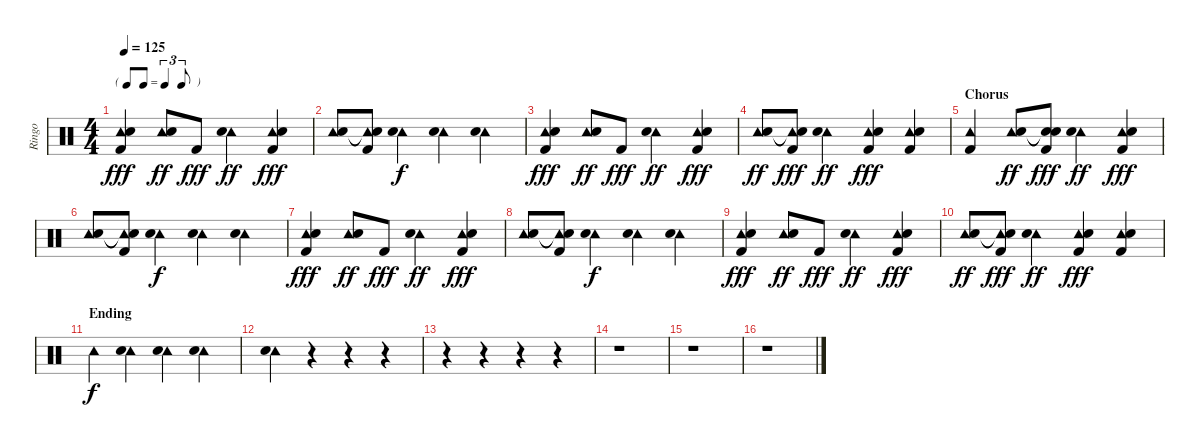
\track ("Ringo" "Ringo") {instrument percussion}
\staff {score}
\articulation defaults
\ts (4 4)
\tf triplet8th
\tempo 125
\clef neutral
\ks c
("Tambourine (hit)" "Electric Snare (hit)" "Kick (hit) 2").4{dy fff} ("Tambourine (hit)" "Electric Snare (hit)").8{dy ff} "Kick (hit) 2".8{dy fff} ("Tambourine (hit)" "Electric Snare (hit)").4{dy ff} ("Tambourine (hit)" "Electric Snare (hit)" "Kick (hit) 2").4{dy fff} |
("Tambourine (hit)" "Electric Snare (hit)").8 ("Tambourine (hit)"{t} "Electric Snare (hit)"{t} "Kick (hit) 2").8 ("Tambourine (hit)" "Electric Snare (hit)").4{dy f} ("Tambourine (hit)" "Electric Snare (hit)").4 ("Tambourine (hit)" "Electric Snare (hit)").4 |
("Tambourine (hit)" "Electric Snare (hit)" "Kick (hit) 2").4{dy fff} ("Tambourine (hit)" "Electric Snare (hit)").8{dy ff} "Kick (hit) 2".8{dy fff} ("Tambourine (hit)" "Electric Snare (hit)").4{dy ff} ("Tambourine (hit)" "Electric Snare (hit)" "Kick (hit) 2").4{dy fff} |
("Tambourine (hit)" "Electric Snare (hit)").8{dy ff} ("Tambourine (hit)"{t} "Electric Snare (hit)"{t} "Kick (hit) 2").8{dy fff} ("Tambourine (hit)" "Electric Snare (hit)").4{dy ff} ("Tambourine (hit)" "Electric Snare (hit)" "Kick (hit) 2").4{dy fff} ("Tambourine (hit)" "Electric Snare (hit)" "Kick (hit) 2").4 |
\section ("" "Chorus")
("Tambourine (hit)" "Kick (hit) 2").4 ("Tambourine (hit)" "Electric Snare (hit)").8{dy ff} ("Snare (hit)"{t} "Snare (hit)"{t} "Kick (hit) 2").8{dy fff} ("Tambourine (hit)" "Electric Snare (hit)").4{dy ff} ("Tambourine (hit)" "Electric Snare (hit)" "Kick (hit) 2").4{dy fff} |
("Tambourine (hit)" "Electric Snare (hit)").8 ("Tambourine (hit)"{t} "Electric Snare (hit)"{t} "Kick (hit) 2").8 ("Tambourine (hit)" "Electric Snare (hit)").4{dy f} ("Tambourine (hit)" "Electric Snare (hit)").4 ("Tambourine (hit)" "Electric Snare (hit)").4 |
("Tambourine (hit)" "Electric Snare (hit)" "Kick (hit) 2").4{dy fff} ("Tambourine (hit)" "Electric Snare (hit)").8{dy ff} "Kick (hit) 2".8{dy fff} ("Tambourine (hit)" "Electric Snare (hit)").4{dy ff} ("Tambourine (hit)" "Electric Snare (hit)" "Kick (hit) 2").4{dy fff} |
("Tambourine (hit)" "Electric Snare (hit)").8 ("Tambourine (hit)"{t} "Electric Snare (hit)"{t} "Kick (hit) 2").8 ("Tambourine (hit)" "Electric Snare (hit)").4{dy f} ("Tambourine (hit)" "Electric Snare (hit)").4 ("Tambourine (hit)" "Electric Snare (hit)").4 |
("Tambourine (hit)" "Electric Snare (hit)" "Kick (hit) 2").4{dy fff} ("Tambourine (hit)" "Electric Snare (hit)").8{dy ff} "Kick (hit) 2".8{dy fff} ("Tambourine (hit)" "Electric Snare (hit)").4{dy ff} ("Tambourine (hit)" "Electric Snare (hit)" "Kick (hit) 2").4{dy fff} |
("Tambourine (hit)" "Electric Snare (hit)").8{dy ff} ("Tambourine (hit)"{t} "Electric Snare (hit)"{t} "Kick (hit) 2").8{dy fff} ("Tambourine (hit)" "Electric Snare (hit)").4{dy ff} ("Tambourine (hit)" "Electric Snare (hit)" "Kick (hit) 2").4{dy fff} ("Tambourine (hit)" "Electric Snare (hit)" "Kick (hit) 2").4 |
\section ("" "Ending")
"Tambourine (hit)".4{dy f} ("Tambourine (hit)" "Electric Snare (hit)").4 ("Tambourine (hit)" "Electric Snare (hit)").4 ("Tambourine (hit)" "Electric Snare (hit)").4 |
("Tambourine (hit)" "Electric Snare (hit)").4 r.4 r.4 r.4 |
r.4 r.4 r.4 r.4 |
r.1 |
r.1 |
r.1
